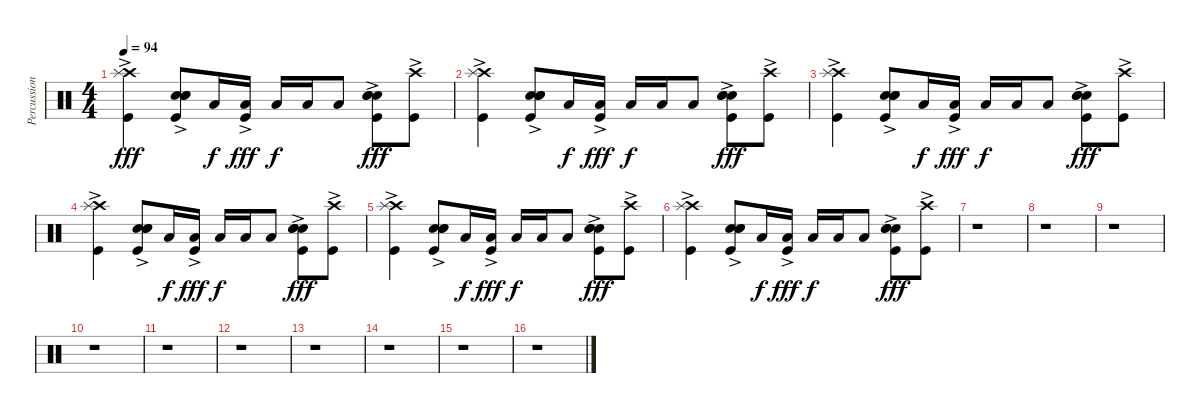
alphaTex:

\track ("Percussion" "Percussion") {instrument percussion}
\staff {score}
\articulation defaults
\ts (4 4)
\tempo 94
\clef neutral
\ks c
("Crash high (hit)" "Splash (hit)" "Kick (hit)"{ac}).4{dy fff} ("Kick (hit)"{ac} "Snare (hit) 2" "Electric Snare (hit)" "Hand Clap (hit)"{ac}).8 "Low Floor Tom (hit)".16{dy f} ("Kick (hit)"{ac} "Low Floor Tom (hit)").16{dy fff} "Low Floor Tom (hit)".16{dy f} "Low Floor Tom (hit)".16 "Low Floor Tom (hit)".8 ("Hand Clap (hit)" "Electric Snare (hit)" "Snare (hit) 2" "Kick (hit)"{ac}).8{dy fff} ("Crash high (hit)" "Kick (hit)"{ac}).8 |
("Crash high (hit)" "Splash (hit)" "Kick (hit)"{ac}).4 ("Kick (hit)"{ac} "Snare (hit) 2" "Electric Snare (hit)" "Hand Clap (hit)"{ac}).8 "Low Floor Tom (hit)".16{dy f} ("Kick (hit)"{ac} "Low Floor Tom (hit)").16{dy fff} "Low Floor Tom (hit)".16{dy f} "Low Floor Tom (hit)".16 "Low Floor Tom (hit)".8 ("Hand Clap (hit)" "Electric Snare (hit)" "Snare (hit) 2" "Kick (hit)"{ac}).8{dy fff} ("Crash high (hit)" "Kick (hit)"{ac}).8 |
("Crash high (hit)" "Splash (hit)" "Kick (hit)"{ac}).4 ("Kick (hit)"{ac} "Snare (hit) 2" "Electric Snare (hit)" "Hand Clap (hit)"{ac}).8 "Low Floor Tom (hit)".16{dy f} ("Kick (hit)"{ac} "Low Floor Tom (hit)").16{dy fff} "Low Floor Tom (hit)".16{dy f} "Low Floor Tom (hit)".16 "Low Floor Tom (hit)".8 ("Hand Clap (hit)" "Electric Snare (hit)" "Snare (hit) 2" "Kick (hit)"{ac}).8{dy fff} ("Crash high (hit)" "Kick (hit)"{ac}).8 |
("Crash high (hit)" "Splash (hit)" "Kick (hit)"{ac}).4 ("Kick (hit)"{ac} "Snare (hit) 2" "Electric Snare (hit)" "Hand Clap (hit)"{ac}).8 "Low Floor Tom (hit)".16{dy f} ("Kick (hit)"{ac} "Low Floor Tom (hit)").16{dy fff} "Low Floor Tom (hit)".16{dy f} "Low Floor Tom (hit)".16 "Low Floor Tom (hit)".8 ("Hand Clap (hit)" "Electric Snare (hit)" "Snare (hit) 2" "Kick (hit)"{ac}).8{dy fff} ("Crash high (hit)" "Kick (hit)"{ac}).8 |
("Crash high (hit)" "Splash (hit)" "Kick (hit)"{ac}).4 ("Kick (hit)"{ac} "Snare (hit) 2" "Electric Snare (hit)" "Hand Clap (hit)"{ac}).8 "Low Floor Tom (hit)".16{dy f} ("Kick (hit)"{ac} "Low Floor Tom (hit)").16{dy fff} "Low Floor Tom (hit)".16{dy f} "Low Floor Tom (hit)".16 "Low Floor Tom (hit)".8 ("Hand Clap (hit)" "Electric Snare (hit)" "Snare (hit) 2" "Kick (hit)"{ac}).8{dy fff} ("Crash high (hit)" "Kick (hit)"{ac}).8 |
("Crash high (hit)" "Splash (hit)" "Kick (hit)"{ac}).4 ("Kick (hit)"{ac} "Snare (hit) 2" "Electric Snare (hit)" "Hand Clap (hit)"{ac}).8 "Low Floor Tom (hit)".16{dy f} ("Kick (hit)"{ac} "Low Floor Tom (hit)").16{dy fff} "Low Floor Tom (hit)".16{dy f} "Low Floor Tom (hit)".16 "Low Floor Tom (hit)".8 ("Hand Clap (hit)" "Electric Snare (hit)" "Snare (hit) 2" "Kick (hit)"{ac}).8{dy fff} ("Crash high (hit)" "Kick (hit)"{ac}).8 |
r.1 |
r.1 |
r.1 |
r.1 |
r.1 |
r.1 |
r.1 |
r.1 |
r.1 |
r.1
